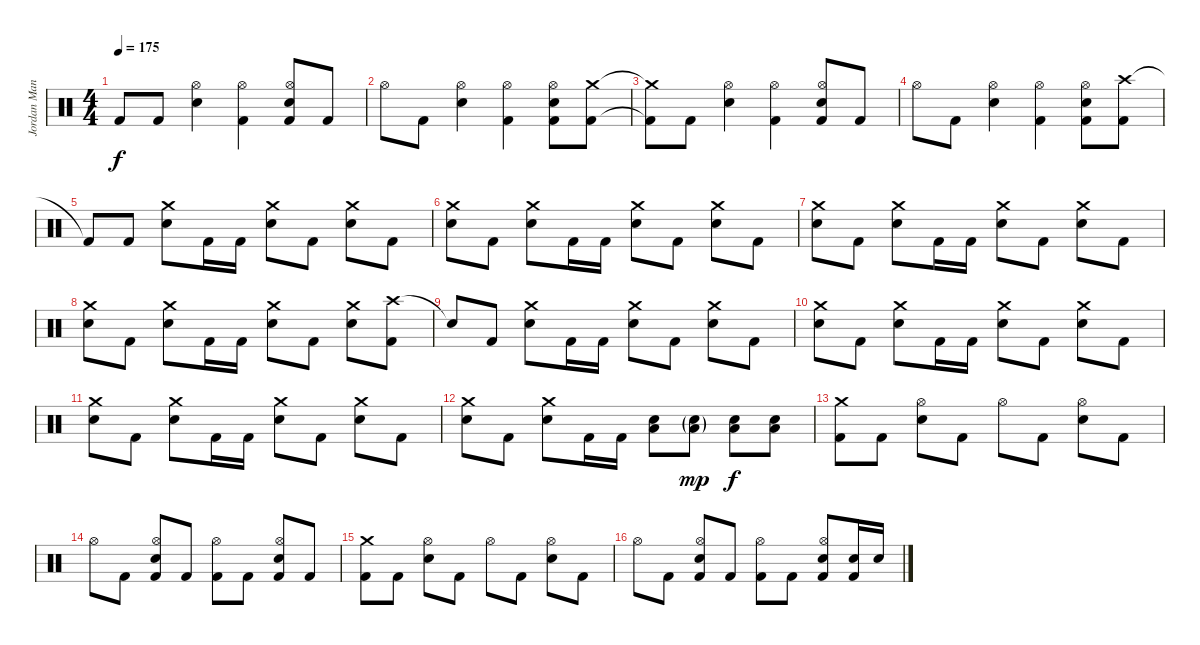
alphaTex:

\track ("Jordan Mancino" "Jordan Man") {instrument percussion}
\staff {score}
\articulation defaults
\ts (4 4)
\tempo 175
\clef neutral
\ks c "Kick (hit) 2"{t}.8{dy f} "Kick (hit) 2".8
("Hi-Hat (open)" "Electric Snare (hit)").4 ("Hi-Hat (open)" "Kick (hit) 2").4 ("Hi-Hat (open)" "Electric Snare (hit)" "Kick (hit) 2").8 "Kick (hit) 2".8 |
"Hi-Hat (open)".8 "Kick (hit) 2".8 ("Hi-Hat (open)" "Electric Snare (hit)").4 ("Hi-Hat (open)" "Kick (hit) 2").4 ("Hi-Hat (open)" "Electric Snare (hit)" "Kick (hit) 2").8 ("Crash medium (hit)" "Kick (hit) 2").8 |
("Crash medium (hit)"{t} "Kick (hit) 2"{t}).8 "Kick (hit) 2".8 ("Hi-Hat (open)" "Electric Snare (hit)").4 ("Hi-Hat (open)" "Kick (hit) 2").4 ("Hi-Hat (open)" "Electric Snare (hit)" "Kick (hit) 2").8 "Kick (hit) 2".8 |
"Hi-Hat (open)".8 "Kick (hit) 2".8 ("Hi-Hat (open)" "Electric Snare (hit)").4 ("Hi-Hat (open)" "Kick (hit) 2").4 ("Hi-Hat (open)" "Electric Snare (hit)" "Kick (hit) 2").8 ("Crash high (hit)" "Kick (hit) 2").8 |
"Kick (hit) 2"{t}.8 "Kick (hit) 2".8 ("Crash medium (hit)" "Electric Snare (hit)").8 "Kick (hit) 2".16 "Kick (hit) 2".16 ("Crash medium (hit)" "Electric Snare (hit)").8 "Kick (hit) 2".8 ("Crash medium (hit)" "Electric Snare (hit)").8 "Kick (hit) 2".8 |
("Crash medium (hit)" "Electric Snare (hit)").8 "Kick (hit) 2".8 ("Crash medium (hit)" "Electric Snare (hit)").8 "Kick (hit) 2".16 "Kick (hit) 2".16 ("Crash medium (hit)" "Electric Snare (hit)").8 "Kick (hit) 2".8 ("Crash medium (hit)" "Electric Snare (hit)").8 "Kick (hit) 2".8 |
("Crash medium (hit)" "Electric Snare (hit)").8 "Kick (hit) 2".8 ("Crash medium (hit)" "Electric Snare (hit)").8 "Kick (hit) 2".16 "Kick (hit) 2".16 ("Crash medium (hit)" "Electric Snare (hit)").8 "Kick (hit) 2".8 ("Crash medium (hit)" "Electric Snare (hit)").8 "Kick (hit) 2".8 |
("Crash medium (hit)" "Electric Snare (hit)").8 "Kick (hit) 2".8 ("Crash medium (hit)" "Electric Snare (hit)").8 "Kick (hit) 2".16 "Kick (hit) 2".16 ("Crash medium (hit)" "Electric Snare (hit)").8 "Kick (hit) 2".8 ("Crash medium (hit)" "Electric Snare (hit)").8 ("Crash high (hit)" "Kick (hit) 2").8 |
"Snare (hit)"{t}.8 "Kick (hit) 2".8 ("Crash medium (hit)" "Electric Snare (hit)").8 "Kick (hit) 2".16 "Kick (hit) 2".16 ("Crash medium (hit)" "Electric Snare (hit)").8 "Kick (hit) 2".8 ("Crash medium (hit)" "Electric Snare (hit)").8 "Kick (hit) 2".8 |
("Crash medium (hit)" "Electric Snare (hit)").8 "Kick (hit) 2".8 ("Crash medium (hit)" "Electric Snare (hit)").8 "Kick (hit) 2".16 "Kick (hit) 2".16 ("Crash medium (hit)" "Electric Snare (hit)").8 "Kick (hit) 2".8 ("Crash medium (hit)" "Electric Snare (hit)").8 "Kick (hit) 2".8 |
("Crash medium (hit)" "Electric Snare (hit)").8 "Kick (hit) 2".8 ("Crash medium (hit)" "Electric Snare (hit)").8 "Kick (hit) 2".16 "Kick (hit) 2".16 ("Crash medium (hit)" "Electric Snare (hit)").8 "Kick (hit) 2".8 ("Crash medium (hit)" "Electric Snare (hit)").8 "Kick (hit) 2".8 |
("Crash medium (hit)" "Electric Snare (hit)").8 "Kick (hit) 2".8 ("Crash medium (hit)" "Electric Snare (hit)").8 "Kick (hit) 2".16 "Kick (hit) 2".16 ("Electric Snare (hit)" "Low Floor Tom (hit)").8 ("Electric Snare (hit)"{g} "Low Floor Tom (hit)"{g}).8{dy mp} ("Electric Snare (hit)" "Low Floor Tom (hit)").8{dy f} ("Electric Snare (hit)" "Low Floor Tom (hit)").8 |
("Crash medium (hit)" "Kick (hit) 2").8 "Kick (hit) 2".8 ("Hi-Hat (open)" "Electric Snare (hit)").8 "Kick (hit) 2".8 "Hi-Hat (open)".8 "Kick (hit) 2".8 ("Hi-Hat (open)" "Electric Snare (hit)").8 "Kick (hit) 2".8 |
"Hi-Hat (open)".8 "Kick (hit) 2".8 ("Hi-Hat (open)" "Electric Snare (hit)" "Kick (hit) 2").8 "Kick (hit) 2".8 ("Hi-Hat (open)" "Kick (hit) 2").8 "Kick (hit) 2".8 ("Hi-Hat (open)" "Electric Snare (hit)" "Kick (hit) 2").8 "Kick (hit) 2".8 |
("Crash medium (hit)" "Kick (hit) 2").8 "Kick (hit) 2".8 ("Hi-Hat (open)" "Electric Snare (hit)").8 "Kick (hit) 2".8 "Hi-Hat (open)".8 "Kick (hit) 2".8 ("Hi-Hat (open)" "Electric Snare (hit)").8 "Kick (hit) 2".8 |
"Hi-Hat (open)".8 "Kick (hit) 2".8 ("Hi-Hat (open)" "Electric Snare (hit)" "Kick (hit) 2").8 "Kick (hit) 2".8 ("Hi-Hat (open)" "Kick (hit) 2").8 "Kick (hit) 2".8 ("Hi-Hat (open)" "Electric Snare (hit)" "Kick (hit) 2").8 ("Electric Snare (hit)" "Kick (hit) 2").16 "Electric Snare (hit)".16
